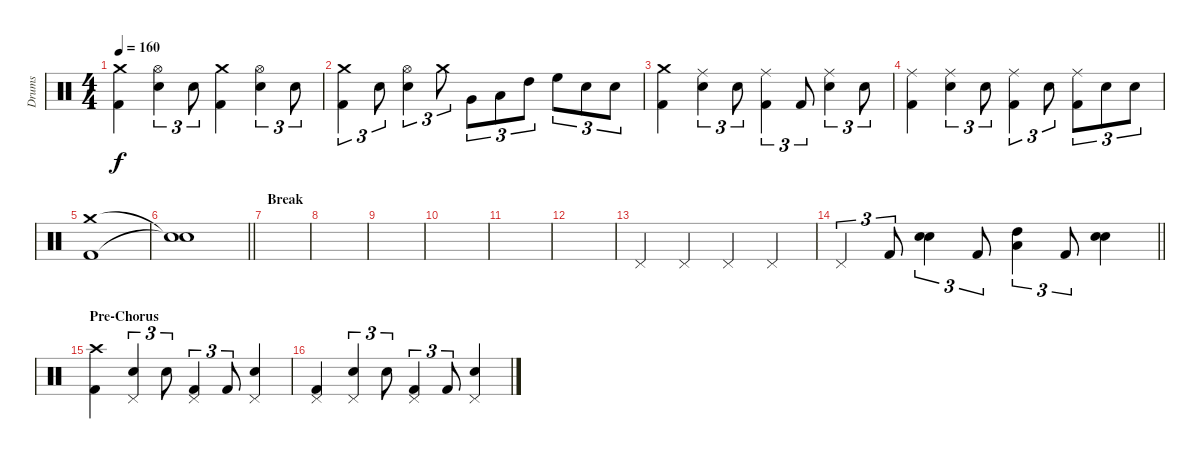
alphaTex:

\track ("Drums" "Drums") {instrument percussion}
\staff {score}
\articulation defaults
\ts (4 4)
\tempo 160
\clef neutral
\ks c
("Crash medium (hit)" "Kick (hit) 2").4{dy f} ("Hi-Hat (open)" "Snare (hit) 2").4{tu (3 2)} "Snare (hit) 2".8{tu (3 2)} ("Crash medium (hit)" "Kick (hit) 2").4 ("Hi-Hat (open)" "Snare (hit) 2").4{tu (3 2)} "Snare (hit) 2".8{tu (3 2)} |
("Crash medium (hit)" "Kick (hit) 2").4{tu (3 2)} "Snare (hit) 2".8{tu (3 2)} ("Hi-Hat (open)" "Snare (hit) 2").4{tu (3 2)} "Crash medium (hit)".8{tu (3 2)} "Very Low Tom (hit)".8{tu (3 2)} "Low Tom (hit)".8{tu (3 2)} "High Tom (hit)".8{tu (3 2)} "High Floor Tom (hit)".8{tu (3 2)} "Snare (hit) 2".8{tu (3 2)} "Snare (hit) 2".8{tu (3 2)} |
("Crash medium (hit)" "Kick (hit) 2").4 ("Ride (middle)" "Snare (hit) 2").4{tu (3 2)} "Snare (hit) 2".8{tu (3 2)} ("Ride (middle)" "Kick (hit) 2").4{tu (3 2)} "Kick (hit) 2".8{tu (3 2)} ("Ride (middle)" "Snare (hit) 2").4{tu (3 2)} "Snare (hit) 2".8{tu (3 2)} |
("Ride (middle)" "Kick (hit) 2").4 ("Ride (middle)" "Snare (hit) 2").4{tu (3 2)} "Snare (hit) 2".8{tu (3 2)} ("Ride (middle)" "Kick (hit) 2").4{tu (3 2)} "Snare (hit) 2".8{tu (3 2)} ("Ride (middle)" "Kick (hit) 2").8{tu (3 2)} "Snare (hit) 2".8{tu (3 2)} "Snare (hit) 2".8{tu (3 2)} |
("Crash medium (hit)" "Kick (hit) 2").1 |
\barLineRight lightlight
("Snare (hit)"{t} "Snare (hit)"{t}).1 |
\section ("" "Break")
|
|
|
|
|
|
"Pedal Hi-Hat (hit)".4 "Pedal Hi-Hat (hit)".4 "Pedal Hi-Hat (hit)".4 "Pedal Hi-Hat (hit)".4 |
\barLineRight lightlight "Pedal Hi-Hat (hit)".4{tu (3 2)} "Kick (hit) 2".8{tu (3 2)}
("Electric Snare (hit)" "Electric Snare (hit)").4{tu (3 2) bd 60} "Kick (hit) 2".8{tu (3 2)} ("High Tom (hit)" "Low Tom (hit)").4{tu (3 2) bd 60} "Kick (hit) 2".8{tu (3 2)} ("Electric Snare (hit)" "Electric Snare (hit)").4{bd 60} |
\section ("" "Pre-Chorus")
("Crash high (hit)" "Kick (hit) 2").4 ("Pedal Hi-Hat (hit)" "Snare (hit) 2").4{tu (3 2)} "Snare (hit) 2".8{tu (3 2)} ("Pedal Hi-Hat (hit)" "Kick (hit) 2").4{tu (3 2)} "Kick (hit) 2".8{tu (3 2)} ("Pedal Hi-Hat (hit)" "Snare (hit) 2").4 |
("Pedal Hi-Hat (hit)" "Kick (hit) 2").4 ("Pedal Hi-Hat (hit)" "Snare (hit) 2").4{tu (3 2)} "Snare (hit) 2".8{tu (3 2)} ("Pedal Hi-Hat (hit)" "Kick (hit) 2").4{tu (3 2)} "Kick (hit) 2".8{tu (3 2)} ("Pedal Hi-Hat (hit)" "Snare (hit) 2").4
